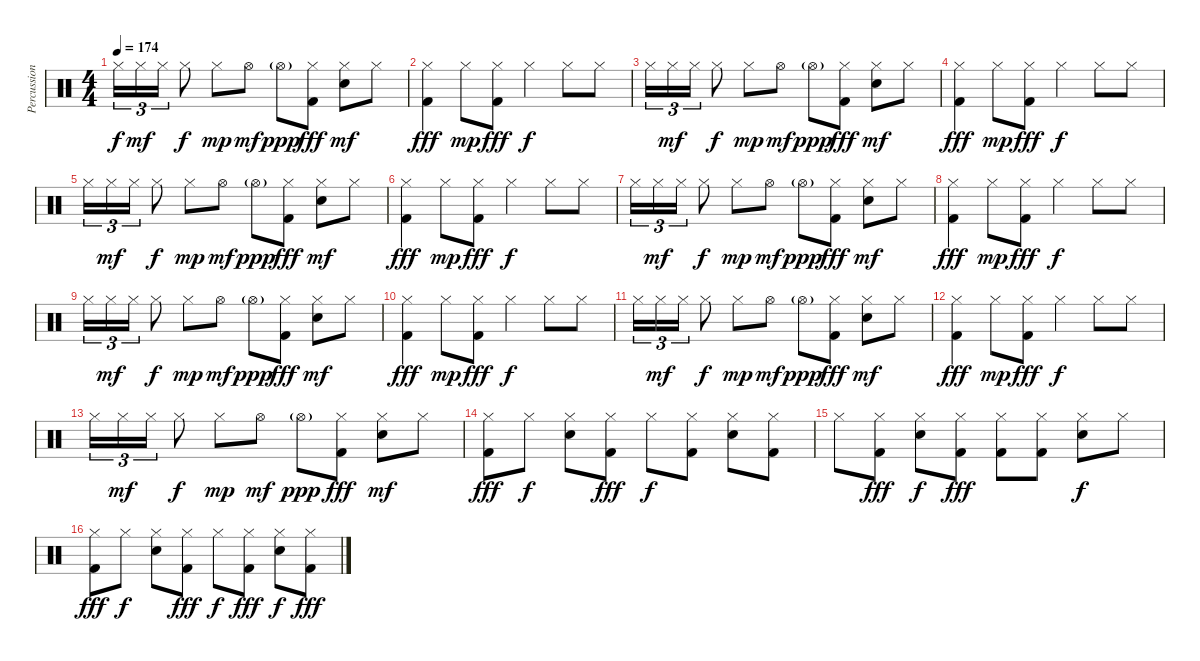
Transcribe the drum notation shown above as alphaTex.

\track ("Percussion" "Percussion") {instrument percussion}
\staff {score}
\articulation defaults
\ts (4 4)
\tempo 174
\clef neutral
\ks c "Hi-Hat (closed)".16{tu (3 2) dy f} "Hi-Hat (closed)".16{tu (3 2) dy mf} "Hi-Hat (closed)".16{tu (3 2)} "Hi-Hat (closed)".8{dy f} "Hi-Hat (closed)".8{dy mp} "Hi-Hat (open)".8{dy mf} "Hi-Hat (open)"{g}.8{dy ppp}
("Hi-Hat (closed)" "Kick (hit) 2").8{dy fff} ("Hi-Hat (closed)" "Snare (hit) 2").8{dy mf} "Hi-Hat (closed)".8 |
("Hi-Hat (closed)" "Kick (hit) 2").4{dy fff} "Hi-Hat (closed)".8{dy mp} ("Hi-Hat (closed)" "Kick (hit) 2").8{dy fff} "Hi-Hat (closed)".4{dy f} "Hi-Hat (closed)".8 "Hi-Hat (closed)".8 |
"Hi-Hat (closed)".16{tu (3 2)} "Hi-Hat (closed)".16{tu (3 2) dy mf} "Hi-Hat (closed)".16{tu (3 2)} "Hi-Hat (closed)".8{dy f} "Hi-Hat (closed)".8{dy mp} "Hi-Hat (open)".8{dy mf} "Hi-Hat (open)"{g}.8{dy ppp} ("Hi-Hat (closed)" "Kick (hit) 2").8{dy fff} ("Hi-Hat (closed)" "Snare (hit) 2").8{dy mf} "Hi-Hat (closed)".8 |
("Hi-Hat (closed)" "Kick (hit) 2").4{dy fff} "Hi-Hat (closed)".8{dy mp} ("Hi-Hat (closed)" "Kick (hit) 2").8{dy fff} "Hi-Hat (closed)".4{dy f} "Hi-Hat (closed)".8 "Hi-Hat (closed)".8 |
"Hi-Hat (closed)".16{tu (3 2)} "Hi-Hat (closed)".16{tu (3 2) dy mf} "Hi-Hat (closed)".16{tu (3 2)} "Hi-Hat (closed)".8{dy f} "Hi-Hat (closed)".8{dy mp} "Hi-Hat (open)".8{dy mf} "Hi-Hat (open)"{g}.8{dy ppp} ("Hi-Hat (closed)" "Kick (hit) 2").8{dy fff} ("Hi-Hat (closed)" "Snare (hit) 2").8{dy mf} "Hi-Hat (closed)".8 |
("Hi-Hat (closed)" "Kick (hit) 2").4{dy fff} "Hi-Hat (closed)".8{dy mp} ("Hi-Hat (closed)" "Kick (hit) 2").8{dy fff} "Hi-Hat (closed)".4{dy f} "Hi-Hat (closed)".8 "Hi-Hat (closed)".8 |
"Hi-Hat (closed)".16{tu (3 2)} "Hi-Hat (closed)".16{tu (3 2) dy mf} "Hi-Hat (closed)".16{tu (3 2)} "Hi-Hat (closed)".8{dy f} "Hi-Hat (closed)".8{dy mp} "Hi-Hat (open)".8{dy mf} "Hi-Hat (open)"{g}.8{dy ppp} ("Hi-Hat (closed)" "Kick (hit) 2").8{dy fff} ("Hi-Hat (closed)" "Snare (hit) 2").8{dy mf} "Hi-Hat (closed)".8 |
("Hi-Hat (closed)" "Kick (hit) 2").4{dy fff} "Hi-Hat (closed)".8{dy mp} ("Hi-Hat (closed)" "Kick (hit) 2").8{dy fff} "Hi-Hat (closed)".4{dy f} "Hi-Hat (closed)".8 "Hi-Hat (closed)".8 |
"Hi-Hat (closed)".16{tu (3 2)} "Hi-Hat (closed)".16{tu (3 2) dy mf} "Hi-Hat (closed)".16{tu (3 2)} "Hi-Hat (closed)".8{dy f} "Hi-Hat (closed)".8{dy mp} "Hi-Hat (open)".8{dy mf} "Hi-Hat (open)"{g}.8{dy ppp} ("Hi-Hat (closed)" "Kick (hit) 2").8{dy fff} ("Hi-Hat (closed)" "Snare (hit) 2").8{dy mf} "Hi-Hat (closed)".8 |
("Hi-Hat (closed)" "Kick (hit) 2").4{dy fff} "Hi-Hat (closed)".8{dy mp} ("Hi-Hat (closed)" "Kick (hit) 2").8{dy fff} "Hi-Hat (closed)".4{dy f} "Hi-Hat (closed)".8 "Hi-Hat (closed)".8 |
"Hi-Hat (closed)".16{tu (3 2)} "Hi-Hat (closed)".16{tu (3 2) dy mf} "Hi-Hat (closed)".16{tu (3 2)} "Hi-Hat (closed)".8{dy f} "Hi-Hat (closed)".8{dy mp} "Hi-Hat (open)".8{dy mf} "Hi-Hat (open)"{g}.8{dy ppp} ("Hi-Hat (closed)" "Kick (hit) 2").8{dy fff} ("Hi-Hat (closed)" "Snare (hit) 2").8{dy mf} "Hi-Hat (closed)".8 |
("Hi-Hat (closed)" "Kick (hit) 2").4{dy fff} "Hi-Hat (closed)".8{dy mp} ("Hi-Hat (closed)" "Kick (hit) 2").8{dy fff} "Hi-Hat (closed)".4{dy f} "Hi-Hat (closed)".8 "Hi-Hat (closed)".8 |
"Hi-Hat (closed)".16{tu (3 2)} "Hi-Hat (closed)".16{tu (3 2) dy mf} "Hi-Hat (closed)".16{tu (3 2)} "Hi-Hat (closed)".8{dy f} "Hi-Hat (closed)".8{dy mp} "Hi-Hat (open)".8{dy mf} "Hi-Hat (open)"{g}.8{dy ppp} ("Hi-Hat (closed)" "Kick (hit) 2").8{dy fff} ("Hi-Hat (closed)" "Snare (hit) 2").8{dy mf} "Hi-Hat (closed)".8 |
("Hi-Hat (closed)" "Kick (hit) 2").8{dy fff} "Hi-Hat (closed)".8{dy f} ("Hi-Hat (closed)" "Snare (hit) 2").8 ("Hi-Hat (closed)" "Kick (hit) 2").8{dy fff} "Hi-Hat (closed)".8{dy f} ("Hi-Hat (closed)" "Kick (hit) 2").8 ("Hi-Hat (closed)" "Snare (hit) 2").8 ("Hi-Hat (closed)" "Kick (hit) 2").8 |
"Hi-Hat (closed)".8 ("Hi-Hat (closed)" "Kick (hit) 2").8{dy fff} ("Hi-Hat (closed)" "Snare (hit) 2").8{dy f} ("Hi-Hat (closed)" "Kick (hit) 2").8{dy fff} ("Hi-Hat (closed)" "Kick (hit) 2").8 ("Hi-Hat (closed)" "Kick (hit) 2").8 ("Hi-Hat (closed)" "Snare (hit) 2").8{dy f} "Hi-Hat (closed)".8 |
("Hi-Hat (closed)" "Kick (hit) 2").8{dy fff} "Hi-Hat (closed)".8{dy f} ("Hi-Hat (closed)" "Snare (hit) 2").8 ("Hi-Hat (closed)" "Kick (hit) 2").8{dy fff} "Hi-Hat (closed)".8{dy f} ("Hi-Hat (closed)" "Kick (hit) 2").8{dy fff} ("Hi-Hat (closed)" "Snare (hit) 2").8{dy f} ("Hi-Hat (closed)" "Kick (hit) 2").8{dy fff}
